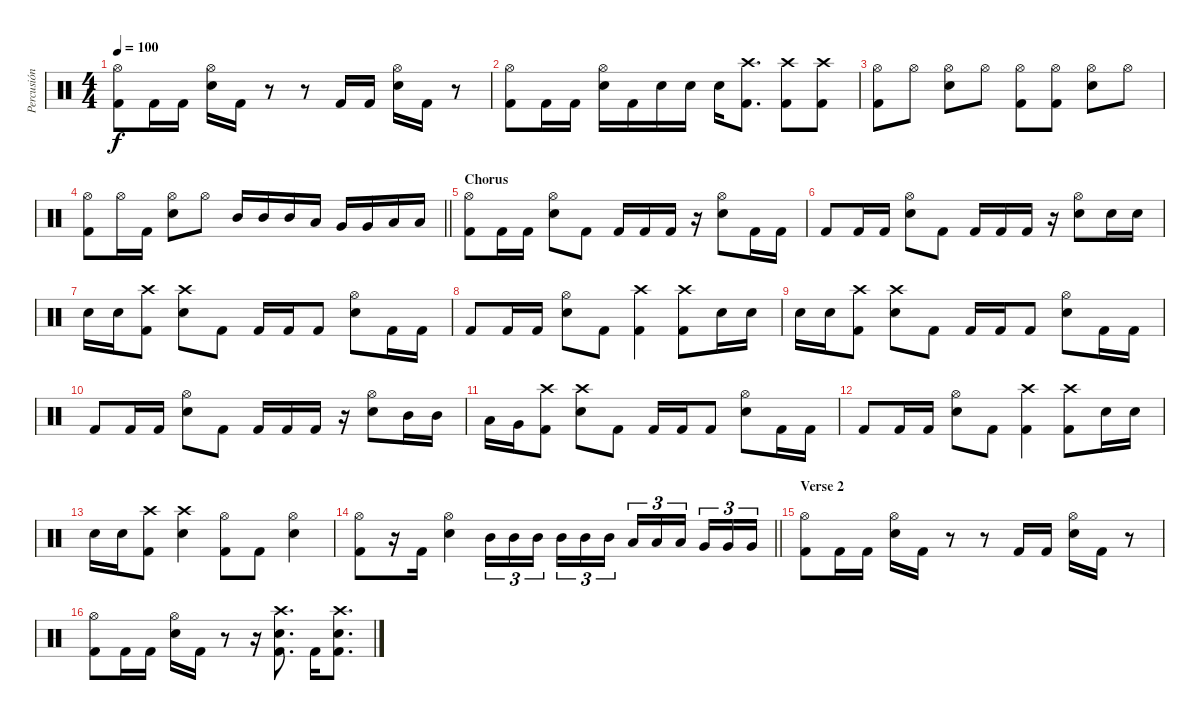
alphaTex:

\track ("Percusión" "Percusión") {instrument percussion}
\staff {score}
\articulation defaults
\ts (4 4)
\tempo 100
\clef neutral
\ks c
("Hi-Hat (open)" "Kick (hit) 2").8{dy f} "Kick (hit) 2".16 "Kick (hit) 2".16 ("Hi-Hat (open)" "Snare (hit) 2").16 "Kick (hit) 2".16 r.8 r.8 "Kick (hit) 2".16 "Kick (hit) 2".16 ("Hi-Hat (open)" "Snare (hit) 2").16 "Kick (hit) 2".16 r.8 |
("Hi-Hat (open)" "Kick (hit) 2").8 "Kick (hit) 2".16 "Kick (hit) 2".16 ("Hi-Hat (open)" "Snare (hit) 2").16 "Kick (hit) 2".16 "Snare (hit) 2".16 "Snare (hit) 2".16 "Snare (hit) 2".16 ("Crash high (hit)" "Kick (hit) 2").8{d} ("Crash high (hit)" "Kick (hit) 2").8 ("Crash high (hit)" "Kick (hit) 2").8 |
("Hi-Hat (open)" "Kick (hit) 2").8 "Hi-Hat (open)".8 ("Hi-Hat (open)" "Snare (hit) 2").8 "Hi-Hat (open)".8 ("Hi-Hat (open)" "Kick (hit) 2").8 ("Hi-Hat (open)" "Kick (hit) 2").8 ("Hi-Hat (open)" "Snare (hit) 2").8 "Hi-Hat (open)".8 |
\barLineRight lightlight
("Hi-Hat (open)" "Kick (hit) 2").8 "Hi-Hat (open)".16 "Kick (hit) 2".16 ("Hi-Hat (open)" "Snare (hit) 2").8 "Hi-Hat (open)".8 "Mid Tom (hit)".16 "Mid Tom (hit)".16 "Mid Tom (hit)".16 "Low Tom (hit)".16 "Very Low Tom (hit)".16 "Very Low Tom (hit)".16 "Low Floor Tom (hit)".16 "Low Floor Tom (hit)".16 |
\section ("" "Chorus")
("Hi-Hat (open)" "Kick (hit) 2").8 "Kick (hit) 2".16 "Kick (hit) 2".16 ("Hi-Hat (open)" "Snare (hit) 2").8 "Kick (hit) 2".8 "Kick (hit) 2".16 "Kick (hit) 2".16 "Kick (hit) 2".16 r.16 ("Hi-Hat (open)" "Snare (hit) 2").8 "Kick (hit) 2".16 "Kick (hit) 2".16 |
"Kick (hit) 2".8 "Kick (hit) 2".16 "Kick (hit) 2".16 ("Hi-Hat (open)" "Snare (hit) 2").8 "Kick (hit) 2".8 "Kick (hit) 2".16 "Kick (hit) 2".16 "Kick (hit) 2".16 r.16 ("Hi-Hat (open)" "Snare (hit) 2").8 "Snare (hit) 2".16 "Snare (hit) 2".16 |
"Snare (hit) 2".16 "Snare (hit) 2".16 ("Crash high (hit)" "Kick (hit) 2").8 ("Crash high (hit)" "Snare (hit) 2").8 "Kick (hit) 2".8 "Kick (hit) 2".16 "Kick (hit) 2".16 "Kick (hit) 2".8 ("Hi-Hat (open)" "Snare (hit) 2").8 "Kick (hit) 2".16 "Kick (hit) 2".16 |
"Kick (hit) 2".8 "Kick (hit) 2".16 "Kick (hit) 2".16 ("Hi-Hat (open)" "Snare (hit) 2").8 "Kick (hit) 2".8 ("Crash high (hit)" "Kick (hit) 2").4 ("Crash high (hit)" "Kick (hit) 2").8 "Snare (hit) 2".16 "Snare (hit) 2".16 |
"Snare (hit) 2".16 "Snare (hit) 2".16 ("Crash high (hit)" "Kick (hit) 2").8 ("Crash high (hit)" "Snare (hit) 2").8 "Kick (hit) 2".8 "Kick (hit) 2".16 "Kick (hit) 2".16 "Kick (hit) 2".8 ("Hi-Hat (open)" "Snare (hit) 2").8 "Kick (hit) 2".16 "Kick (hit) 2".16 |
"Kick (hit) 2".8 "Kick (hit) 2".16 "Kick (hit) 2".16 ("Hi-Hat (open)" "Snare (hit) 2").8 "Kick (hit) 2".8 "Kick (hit) 2".16 "Kick (hit) 2".16 "Kick (hit) 2".16 r.16 ("Hi-Hat (open)" "Snare (hit) 2").8 "Mid Tom (hit)".16 "Mid Tom (hit)".16 |
"Low Tom (hit)".16 "Very Low Tom (hit)".16 ("Crash high (hit)" "Kick (hit) 2").8 ("Crash high (hit)" "Snare (hit) 2").8 "Kick (hit) 2".8 "Kick (hit) 2".16 "Kick (hit) 2".16 "Kick (hit) 2".8 ("Hi-Hat (open)" "Snare (hit) 2").8 "Kick (hit) 2".16 "Kick (hit) 2".16 |
"Kick (hit) 2".8 "Kick (hit) 2".16 "Kick (hit) 2".16 ("Hi-Hat (open)" "Snare (hit) 2").8 "Kick (hit) 2".8 ("Crash high (hit)" "Kick (hit) 2").4 ("Crash high (hit)" "Kick (hit) 2").8 "Snare (hit) 2".16 "Snare (hit) 2".16 |
"Snare (hit) 2".16 "Snare (hit) 2".16 ("Crash high (hit)" "Kick (hit) 2").8 ("Crash high (hit)" "Snare (hit) 2").4 ("Hi-Hat (open)" "Kick (hit) 2").8 "Kick (hit) 2".8 ("Hi-Hat (open)" "Snare (hit) 2").4 |
\barLineRight lightlight
("Hi-Hat (open)" "Kick (hit) 2").8 r.16 "Kick (hit) 2".16 ("Hi-Hat (open)" "Snare (hit) 2").4 "Mid Tom (hit)".16{tu (3 2)} "Mid Tom (hit)".16{tu (3 2)} "Mid Tom (hit)".16{tu (3 2) beam splitsecondary} "Mid Tom (hit)".16{tu (3 2)} "Mid Tom (hit)".16{tu (3 2)} "Mid Tom (hit)".16{tu (3 2)} "Low Tom (hit)".16{tu (3 2)} "Low Tom (hit)".16{tu (3 2)} "Low Tom (hit)".16{tu (3 2) beam splitsecondary} "Very Low Tom (hit)".16{tu (3 2)} "Very Low Tom (hit)".16{tu (3 2)} "Very Low Tom (hit)".16{tu (3 2)} |
\section ("" "Verse 2")
("Hi-Hat (open)" "Kick (hit) 2").8 "Kick (hit) 2".16 "Kick (hit) 2".16 ("Hi-Hat (open)" "Snare (hit) 2").16 "Kick (hit) 2".16 r.8 r.8 "Kick (hit) 2".16 "Kick (hit) 2".16 ("Hi-Hat (open)" "Snare (hit) 2").16 "Kick (hit) 2".16 r.8 |
("Hi-Hat (open)" "Kick (hit) 2").8 "Kick (hit) 2".16 "Kick (hit) 2".16 ("Hi-Hat (open)" "Snare (hit) 2").16 "Kick (hit) 2".16 r.8 r.16 ("Crash high (hit)" "Snare (hit) 2" "Kick (hit) 2").8{d} "Kick (hit) 2".16 ("Crash high (hit)" "Snare (hit) 2" "Kick (hit) 2").8{d}
